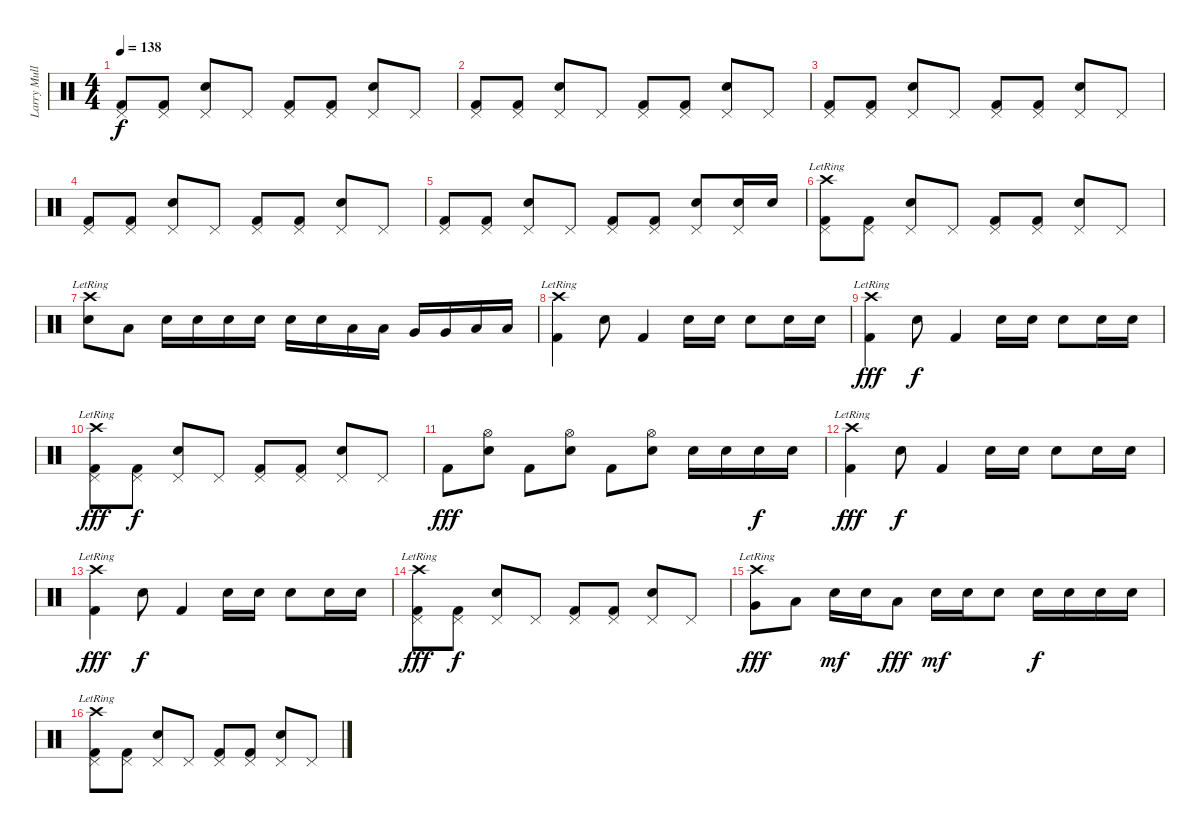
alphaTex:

\track ("Larry Mullen" "Larry Mull") {instrument percussion}
\staff {score}
\articulation defaults
\ts (4 4)
\tempo 138
\clef neutral
\ks c
("Kick (hit) 2" "Pedal Hi-Hat (hit)").8{dy f} ("Kick (hit) 2" "Pedal Hi-Hat (hit)").8 ("Snare (hit) 2" "Pedal Hi-Hat (hit)").8 "Pedal Hi-Hat (hit)".8 ("Kick (hit) 2" "Pedal Hi-Hat (hit)").8 ("Kick (hit) 2" "Pedal Hi-Hat (hit)").8 ("Snare (hit) 2" "Pedal Hi-Hat (hit)").8 "Pedal Hi-Hat (hit)".8 |
("Kick (hit) 2" "Pedal Hi-Hat (hit)").8 ("Kick (hit) 2" "Pedal Hi-Hat (hit)").8 ("Snare (hit) 2" "Pedal Hi-Hat (hit)").8 "Pedal Hi-Hat (hit)".8 ("Kick (hit) 2" "Pedal Hi-Hat (hit)").8 ("Kick (hit) 2" "Pedal Hi-Hat (hit)").8 ("Snare (hit) 2" "Pedal Hi-Hat (hit)").8 "Pedal Hi-Hat (hit)".8 |
("Kick (hit) 2" "Pedal Hi-Hat (hit)").8 ("Kick (hit) 2" "Pedal Hi-Hat (hit)").8 ("Snare (hit) 2" "Pedal Hi-Hat (hit)").8 "Pedal Hi-Hat (hit)".8 ("Kick (hit) 2" "Pedal Hi-Hat (hit)").8 ("Kick (hit) 2" "Pedal Hi-Hat (hit)").8 ("Snare (hit) 2" "Pedal Hi-Hat (hit)").8 "Pedal Hi-Hat (hit)".8 |
("Kick (hit) 2" "Pedal Hi-Hat (hit)").8 ("Kick (hit) 2" "Pedal Hi-Hat (hit)").8 ("Snare (hit) 2" "Pedal Hi-Hat (hit)").8 "Pedal Hi-Hat (hit)".8 ("Kick (hit) 2" "Pedal Hi-Hat (hit)").8 ("Kick (hit) 2" "Pedal Hi-Hat (hit)").8 ("Snare (hit) 2" "Pedal Hi-Hat (hit)").8 "Pedal Hi-Hat (hit)".8 |
("Kick (hit) 2" "Pedal Hi-Hat (hit)").8 ("Kick (hit) 2" "Pedal Hi-Hat (hit)").8 ("Snare (hit) 2" "Pedal Hi-Hat (hit)").8 "Pedal Hi-Hat (hit)".8 ("Kick (hit) 2" "Pedal Hi-Hat (hit)").8 ("Kick (hit) 2" "Pedal Hi-Hat (hit)").8 ("Snare (hit) 2" "Pedal Hi-Hat (hit)").8 ("Snare (hit) 2" "Pedal Hi-Hat (hit)").16 "Snare (hit) 2".16 |
("Kick (hit) 2" "Crash high (hit)"{lr} "Pedal Hi-Hat (hit)").8 ("Kick (hit) 2" "Pedal Hi-Hat (hit)").8 ("Snare (hit) 2" "Pedal Hi-Hat (hit)").8 "Pedal Hi-Hat (hit)".8 ("Kick (hit) 2" "Pedal Hi-Hat (hit)").8 ("Kick (hit) 2" "Pedal Hi-Hat (hit)").8 ("Snare (hit) 2" "Pedal Hi-Hat (hit)").8 "Pedal Hi-Hat (hit)".8 |
("Snare (hit) 2" "Crash high (hit)"{lr}).8 "Low Floor Tom (hit)".8 "Snare (hit) 2".16 "Snare (hit) 2".16 "Snare (hit) 2".16 "Snare (hit) 2".16 "Snare (hit) 2".16 "Snare (hit) 2".16 "Low Tom (hit)".16 "Low Tom (hit)".16 "Very Low Tom (hit)".16 "Very Low Tom (hit)".16 "Low Floor Tom (hit)".16 "Low Floor Tom (hit)".16 |
("Kick (hit) 2" "Crash high (hit)"{lr}).4 "Snare (hit) 2".8 "Kick (hit) 2".4 "Snare (hit) 2".16 "Snare (hit) 2".16 "Snare (hit) 2".8 "Snare (hit) 2".16 "Snare (hit) 2".16 |
("Kick (hit) 2" "Crash high (hit)"{lr}).4{dy fff} "Snare (hit) 2".8{dy f} "Kick (hit) 2".4 "Snare (hit) 2".16 "Snare (hit) 2".16 "Snare (hit) 2".8 "Snare (hit) 2".16 "Snare (hit) 2".16 |
("Kick (hit) 2" "Crash high (hit)"{lr} "Pedal Hi-Hat (hit)").8{dy fff} ("Kick (hit) 2" "Pedal Hi-Hat (hit)").8{dy f} ("Snare (hit) 2" "Pedal Hi-Hat (hit)").8 "Pedal Hi-Hat (hit)".8 ("Kick (hit) 2" "Pedal Hi-Hat (hit)").8 ("Kick (hit) 2" "Pedal Hi-Hat (hit)").8 ("Snare (hit) 2" "Pedal Hi-Hat (hit)").8 "Pedal Hi-Hat (hit)".8 |
"Kick (hit) 2".8{dy fff} ("Hi-Hat (open)" "Snare (hit) 2").8 "Kick (hit) 2".8 ("Hi-Hat (open)" "Snare (hit) 2").8 "Kick (hit) 2".8 ("Hi-Hat (open)" "Snare (hit) 2").8 "Snare (hit) 2".16 "Snare (hit) 2".16 "Snare (hit) 2".16{dy f} "Snare (hit) 2".16 |
("Kick (hit) 2" "Crash high (hit)"{lr}).4{dy fff} "Snare (hit) 2".8{dy f} "Kick (hit) 2".4 "Snare (hit) 2".16 "Snare (hit) 2".16 "Snare (hit) 2".8 "Snare (hit) 2".16 "Snare (hit) 2".16 |
("Kick (hit) 2" "Crash high (hit)"{lr}).4{dy fff} "Snare (hit) 2".8{dy f} "Kick (hit) 2".4 "Snare (hit) 2".16 "Snare (hit) 2".16 "Snare (hit) 2".8 "Snare (hit) 2".16 "Snare (hit) 2".16 |
("Kick (hit) 2" "Crash high (hit)"{lr} "Pedal Hi-Hat (hit)").8{dy fff} ("Kick (hit) 2" "Pedal Hi-Hat (hit)").8{dy f} ("Snare (hit) 2" "Pedal Hi-Hat (hit)").8 "Pedal Hi-Hat (hit)".8 ("Kick (hit) 2" "Pedal Hi-Hat (hit)").8 ("Kick (hit) 2" "Pedal Hi-Hat (hit)").8 ("Snare (hit) 2" "Pedal Hi-Hat (hit)").8 "Pedal Hi-Hat (hit)".8 |
("Very Low Tom (hit)" "Crash high (hit)"{lr}).8{dy fff} "Low Floor Tom (hit)".8 "Snare (hit) 2".16{dy mf} "Snare (hit) 2".16 "Low Floor Tom (hit)".8{dy fff} "Snare (hit) 2".16{dy mf} "Snare (hit) 2".16 "Snare (hit) 2".8 "Snare (hit) 2".16{dy f} "Snare (hit) 2".16 "Snare (hit) 2".16 "Snare (hit) 2".16 |
("Kick (hit) 2" "Crash high (hit)"{lr} "Pedal Hi-Hat (hit)").8 ("Kick (hit) 2" "Pedal Hi-Hat (hit)").8 ("Snare (hit) 2" "Pedal Hi-Hat (hit)").8 "Pedal Hi-Hat (hit)".8 ("Kick (hit) 2" "Pedal Hi-Hat (hit)").8 ("Kick (hit) 2" "Pedal Hi-Hat (hit)").8 ("Snare (hit) 2" "Pedal Hi-Hat (hit)").8 "Pedal Hi-Hat (hit)".8
